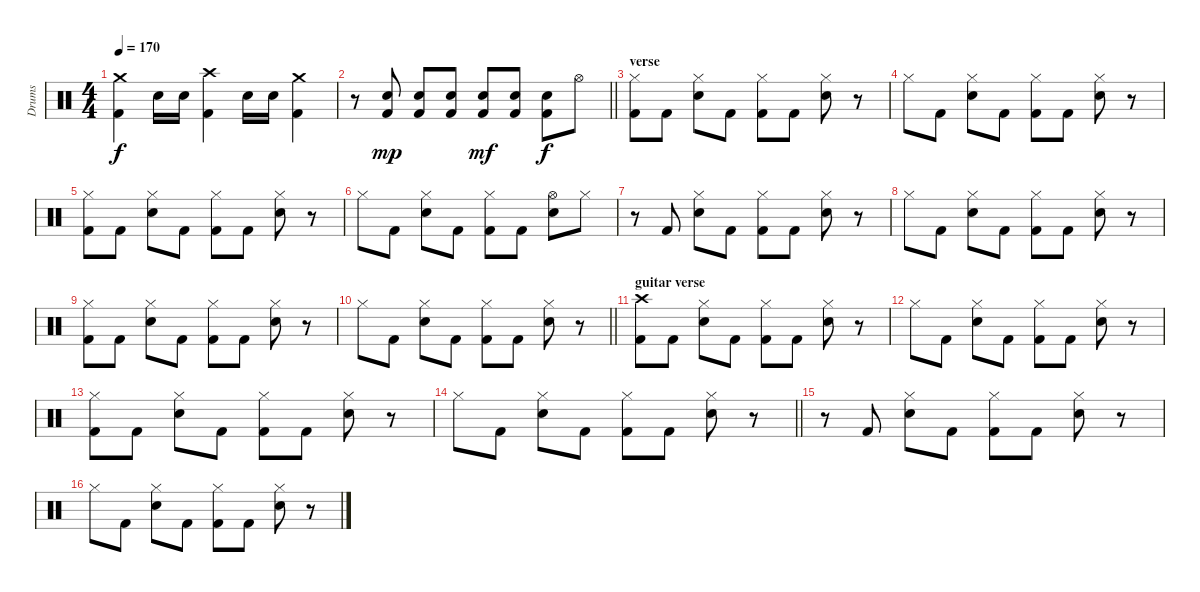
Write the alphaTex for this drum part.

\track ("Drums" "Drums") {instrument percussion}
\staff {score}
\articulation defaults
\ts (4 4)
\tempo 170
\clef neutral
\ks c
("Crash medium (hit)" "Kick (hit) 2").4{dy f} "Electric Snare (hit)".16 "Electric Snare (hit)".16 ("Crash high (hit)" "Kick (hit) 2").4 "Electric Snare (hit)".16 "Electric Snare (hit)".16 ("Crash medium (hit)" "Kick (hit) 2").4 |
\barLineRight lightlight
r.8 ("Electric Snare (hit)" "Kick (hit) 2").8{dy mp} ("Electric Snare (hit)" "Kick (hit) 2").8 ("Electric Snare (hit)" "Kick (hit) 2").8 ("Electric Snare (hit)" "Kick (hit) 2").8{dy mf} ("Electric Snare (hit)" "Kick (hit) 2").8 ("Electric Snare (hit)" "Kick (hit) 2").8{dy f} "Hi-Hat (open)".8 |
\section ("" "verse")
("Hi-Hat (closed)" "Kick (hit) 2").8 "Kick (hit) 2".8 ("Hi-Hat (closed)" "Electric Snare (hit)").8 "Kick (hit) 2".8 ("Hi-Hat (closed)" "Kick (hit) 2").8 "Kick (hit) 2".8 ("Hi-Hat (closed)" "Electric Snare (hit)").8 r.8 |
"Hi-Hat (closed)".8 "Kick (hit) 2".8 ("Hi-Hat (closed)" "Electric Snare (hit)").8 "Kick (hit) 2".8 ("Hi-Hat (closed)" "Kick (hit) 2").8 "Kick (hit) 2".8 ("Hi-Hat (closed)" "Electric Snare (hit)").8 r.8 |
("Hi-Hat (closed)" "Kick (hit) 2").8 "Kick (hit) 2".8 ("Hi-Hat (closed)" "Electric Snare (hit)").8 "Kick (hit) 2".8 ("Hi-Hat (closed)" "Kick (hit) 2").8 "Kick (hit) 2".8 ("Hi-Hat (closed)" "Electric Snare (hit)").8 r.8 |
"Hi-Hat (closed)".8 "Kick (hit) 2".8 ("Hi-Hat (closed)" "Electric Snare (hit)").8 "Kick (hit) 2".8 ("Hi-Hat (closed)" "Kick (hit) 2").8 "Kick (hit) 2".8 ("Hi-Hat (open)" "Electric Snare (hit)").8 "Hi-Hat (closed)".8 |
r.8 "Kick (hit) 2".8 ("Hi-Hat (closed)" "Electric Snare (hit)").8 "Kick (hit) 2".8 ("Hi-Hat (closed)" "Kick (hit) 2").8 "Kick (hit) 2".8 ("Hi-Hat (closed)" "Electric Snare (hit)").8 r.8 |
"Hi-Hat (closed)".8 "Kick (hit) 2".8 ("Hi-Hat (closed)" "Electric Snare (hit)").8 "Kick (hit) 2".8 ("Hi-Hat (closed)" "Kick (hit) 2").8 "Kick (hit) 2".8 ("Hi-Hat (closed)" "Electric Snare (hit)").8 r.8 |
("Hi-Hat (closed)" "Kick (hit) 2").8 "Kick (hit) 2".8 ("Hi-Hat (closed)" "Electric Snare (hit)").8 "Kick (hit) 2".8 ("Hi-Hat (closed)" "Kick (hit) 2").8 "Kick (hit) 2".8 ("Hi-Hat (closed)" "Electric Snare (hit)").8 r.8 |
\barLineRight lightlight "Hi-Hat (closed)".8 "Kick (hit) 2".8
("Hi-Hat (closed)" "Electric Snare (hit)").8 "Kick (hit) 2".8 ("Hi-Hat (closed)" "Kick (hit) 2").8 "Kick (hit) 2".8 ("Hi-Hat (closed)" "Electric Snare (hit)").8 r.8 |
\section ("" "guitar verse")
("Crash high (hit)" "Kick (hit) 2").8 "Kick (hit) 2".8 ("Hi-Hat (closed)" "Electric Snare (hit)").8 "Kick (hit) 2".8 ("Hi-Hat (closed)" "Kick (hit) 2").8 "Kick (hit) 2".8 ("Hi-Hat (closed)" "Electric Snare (hit)").8 r.8 |
"Hi-Hat (closed)".8 "Kick (hit) 2".8 ("Hi-Hat (closed)" "Electric Snare (hit)").8 "Kick (hit) 2".8 ("Hi-Hat (closed)" "Kick (hit) 2").8 "Kick (hit) 2".8 ("Hi-Hat (closed)" "Electric Snare (hit)").8 r.8 |
("Hi-Hat (closed)" "Kick (hit) 2").8 "Kick (hit) 2".8 ("Hi-Hat (closed)" "Electric Snare (hit)").8 "Kick (hit) 2".8 ("Hi-Hat (closed)" "Kick (hit) 2").8 "Kick (hit) 2".8 ("Hi-Hat (closed)" "Electric Snare (hit)").8 r.8 |
\barLineRight lightlight "Hi-Hat (closed)".8 "Kick (hit) 2".8
("Hi-Hat (closed)" "Electric Snare (hit)").8 "Kick (hit) 2".8 ("Hi-Hat (closed)" "Kick (hit) 2").8 "Kick (hit) 2".8 ("Hi-Hat (closed)" "Electric Snare (hit)").8 r.8 |
r.8 "Kick (hit) 2".8 ("Hi-Hat (closed)" "Electric Snare (hit)").8 "Kick (hit) 2".8 ("Hi-Hat (closed)" "Kick (hit) 2").8 "Kick (hit) 2".8 ("Hi-Hat (closed)" "Electric Snare (hit)").8 r.8 |
"Hi-Hat (closed)".8 "Kick (hit) 2".8 ("Hi-Hat (closed)" "Electric Snare (hit)").8 "Kick (hit) 2".8 ("Hi-Hat (closed)" "Kick (hit) 2").8 "Kick (hit) 2".8 ("Hi-Hat (closed)" "Electric Snare (hit)").8 r.8
